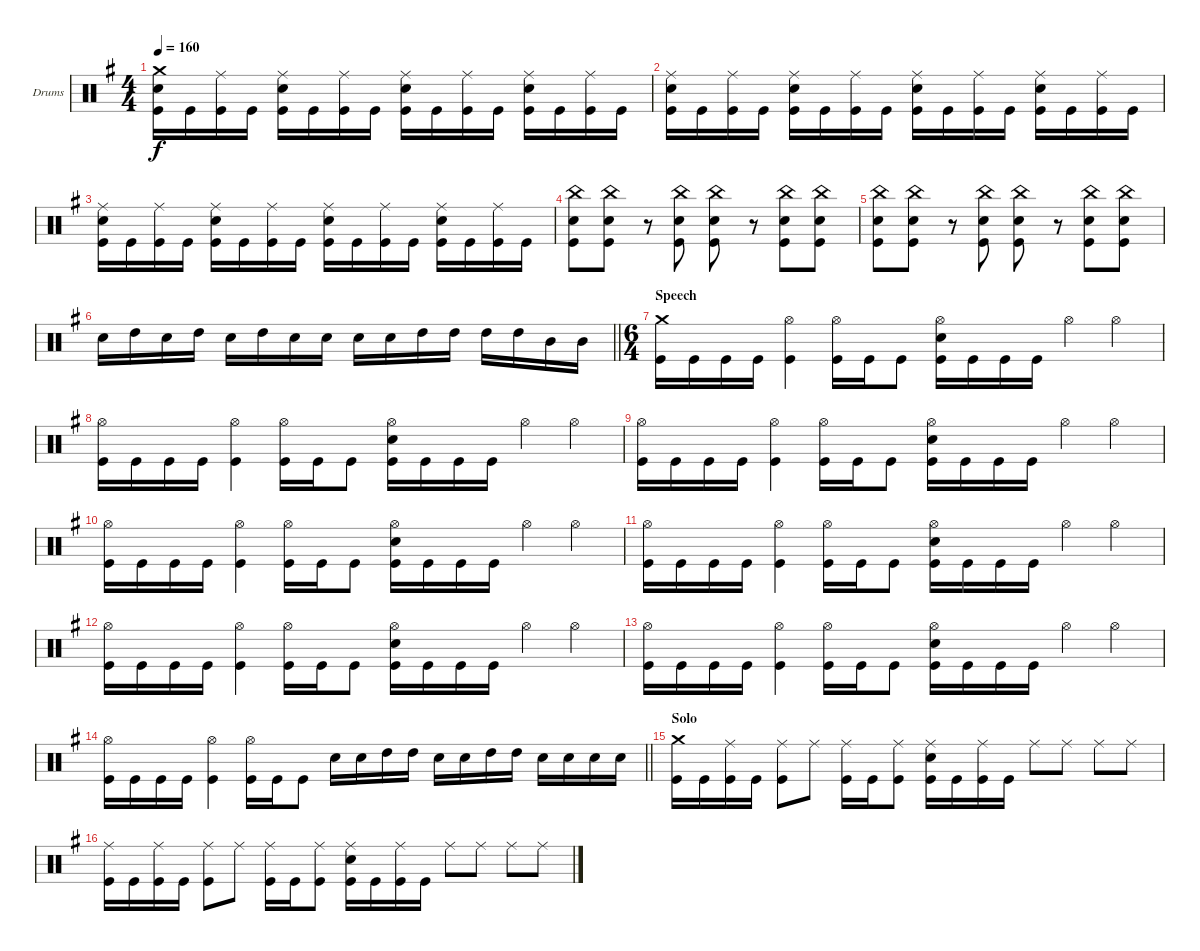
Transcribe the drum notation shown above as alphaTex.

\bracketExtendMode groupsimilarinstruments
\firstSystemTrackNameOrientation horizontal
\otherSystemsTrackNameOrientation horizontal
\track ("Drumkit" "Drums") {instrument percussion}
\staff {score}
\articulation defaults
\ts (4 4)
\tempo 160
\clef neutral
\scale
0.5
\ks g
("Crash medium (hit)" "Snare (hit) 2" "Kick (hit)").16{dy f} "Kick (hit)".16 ("Ride (middle)" "Kick (hit)").16 "Kick (hit)".16 ("Ride (middle)" "Snare (hit) 2" "Kick (hit)").16 "Kick (hit)".16 ("Ride (middle)" "Kick (hit)").16 "Kick (hit)".16 ("Ride (middle)" "Snare (hit) 2" "Kick (hit)").16 "Kick (hit)".16 ("Ride (middle)" "Kick (hit)").16 "Kick (hit)".16 ("Ride (middle)" "Snare (hit) 2" "Kick (hit)").16 "Kick (hit)".16 ("Ride (middle)" "Kick (hit)").16 "Kick (hit)".16 |
\scale
0.5 ("Ride (middle)" "Snare (hit) 2" "Kick (hit)").16 "Kick (hit)".16 ("Ride (middle)" "Kick (hit)").16 "Kick (hit)".16 ("Ride (middle)" "Snare (hit) 2" "Kick (hit)").16 "Kick (hit)".16 ("Ride (middle)" "Kick (hit)").16 "Kick (hit)".16 ("Ride (middle)" "Snare (hit) 2" "Kick (hit)").16 "Kick (hit)".16 ("Ride (middle)" "Kick (hit)").16 "Kick (hit)".16 ("Ride (middle)" "Snare (hit) 2" "Kick (hit)").16 "Kick (hit)".16 ("Ride (middle)" "Kick (hit)").16 "Kick (hit)".16 |
\scale
0.5 ("Ride (middle)" "Snare (hit) 2" "Kick (hit)").16 "Kick (hit)".16 ("Ride (middle)" "Kick (hit)").16 "Kick (hit)".16 ("Ride (middle)" "Snare (hit) 2" "Kick (hit)").16 "Kick (hit)".16 ("Ride (middle)" "Kick (hit)").16 "Kick (hit)".16 ("Ride (middle)" "Snare (hit) 2" "Kick (hit)").16 "Kick (hit)".16 ("Ride (middle)" "Kick (hit)").16 "Kick (hit)".16 ("Ride (middle)" "Snare (hit) 2" "Kick (hit)").16 "Kick (hit)".16 ("Ride (middle)" "Kick (hit)").16 "Kick (hit)".16 |
\scale
0.5 ("China (hit)" "Snare (hit) 2" "Kick (hit)").8 ("China (hit)" "Snare (hit) 2" "Kick (hit)").8 r.8 ("China (hit)" "Snare (hit) 2" "Kick (hit)").8 ("China (hit)" "Snare (hit) 2" "Kick (hit)").8 r.8 ("China (hit)" "Snare (hit) 2" "Kick (hit)").8 ("China (hit)" "Snare (hit) 2" "Kick (hit)").8 |
\scale
0.5 ("China (hit)" "Snare (hit) 2" "Kick (hit)").8 ("China (hit)" "Snare (hit) 2" "Kick (hit)").8 r.8 ("China (hit)" "Snare (hit) 2" "Kick (hit)").8 ("China (hit)" "Snare (hit) 2" "Kick (hit)").8 r.8 ("China (hit)" "Snare (hit) 2" "Kick (hit)").8 ("China (hit)" "Snare (hit) 2" "Kick (hit)").8 |
\scale
0.43281
\barLineRight lightlight "Snare (hit) 2".16 "High Tom (hit)".16 "Snare (hit) 2".16 "High Tom (hit)".16 "Snare (hit) 2".16 "High Tom (hit)".16 "Snare (hit) 2".16 "Snare (hit) 2".16 "Snare (hit) 2".16 "Snare (hit) 2".16 "High Tom (hit)".16 "High Tom (hit)".16 "High Tom (hit)".16 "High Tom (hit)".16 "Mid Tom (hit)".16 "Mid Tom (hit)".16
|
\ts (6 4)
\section ("" "Speech")
\scale
0.56719 ("Crash medium (hit)" "Kick (hit)").16 "Kick (hit)".16 "Kick (hit)".16 "Kick (hit)".16 ("Hi-Hat (open)" "Kick (hit)").4 ("Hi-Hat (open)" "Kick (hit)").16 "Kick (hit)".16 "Kick (hit)".8 ("Hi-Hat (open)" "Snare (hit) 2" "Kick (hit)").16 "Kick (hit)".16 "Kick (hit)".16 "Kick (hit)".16 "Hi-Hat (open)".4 "Hi-Hat (open)".4 |
\scale
0.5 ("Hi-Hat (open)" "Kick (hit)").16 "Kick (hit)".16 "Kick (hit)".16 "Kick (hit)".16 ("Hi-Hat (open)" "Kick (hit)").4 ("Hi-Hat (open)" "Kick (hit)").16 "Kick (hit)".16 "Kick (hit)".8 ("Hi-Hat (open)" "Snare (hit) 2" "Kick (hit)").16 "Kick (hit)".16 "Kick (hit)".16 "Kick (hit)".16 "Hi-Hat (open)".4 "Hi-Hat (open)".4 |
\scale
0.5 ("Hi-Hat (open)" "Kick (hit)").16 "Kick (hit)".16 "Kick (hit)".16 "Kick (hit)".16 ("Hi-Hat (open)" "Kick (hit)").4 ("Hi-Hat (open)" "Kick (hit)").16 "Kick (hit)".16 "Kick (hit)".8 ("Hi-Hat (open)" "Snare (hit) 2" "Kick (hit)").16 "Kick (hit)".16 "Kick (hit)".16 "Kick (hit)".16 "Hi-Hat (open)".4 "Hi-Hat (open)".4 |
\scale
0.5 ("Hi-Hat (open)" "Kick (hit)").16 "Kick (hit)".16 "Kick (hit)".16 "Kick (hit)".16 ("Hi-Hat (open)" "Kick (hit)").4 ("Hi-Hat (open)" "Kick (hit)").16 "Kick (hit)".16 "Kick (hit)".8 ("Hi-Hat (open)" "Snare (hit) 2" "Kick (hit)").16 "Kick (hit)".16 "Kick (hit)".16 "Kick (hit)".16 "Hi-Hat (open)".4 "Hi-Hat (open)".4 |
\scale
0.5 ("Hi-Hat (open)" "Kick (hit)").16 "Kick (hit)".16 "Kick (hit)".16 "Kick (hit)".16 ("Hi-Hat (open)" "Kick (hit)").4 ("Hi-Hat (open)" "Kick (hit)").16 "Kick (hit)".16 "Kick (hit)".8 ("Hi-Hat (open)" "Snare (hit) 2" "Kick (hit)").16 "Kick (hit)".16 "Kick (hit)".16 "Kick (hit)".16 "Hi-Hat (open)".4 "Hi-Hat (open)".4 |
\scale
0.5 ("Hi-Hat (open)" "Kick (hit)").16 "Kick (hit)".16 "Kick (hit)".16 "Kick (hit)".16 ("Hi-Hat (open)" "Kick (hit)").4 ("Hi-Hat (open)" "Kick (hit)").16 "Kick (hit)".16 "Kick (hit)".8 ("Hi-Hat (open)" "Snare (hit) 2" "Kick (hit)").16 "Kick (hit)".16 "Kick (hit)".16 "Kick (hit)".16 "Hi-Hat (open)".4 "Hi-Hat (open)".4 |
\scale
0.5 ("Hi-Hat (open)" "Kick (hit)").16 "Kick (hit)".16 "Kick (hit)".16 "Kick (hit)".16 ("Hi-Hat (open)" "Kick (hit)").4 ("Hi-Hat (open)" "Kick (hit)").16 "Kick (hit)".16 "Kick (hit)".8 ("Hi-Hat (open)" "Snare (hit) 2" "Kick (hit)").16 "Kick (hit)".16 "Kick (hit)".16 "Kick (hit)".16 "Hi-Hat (open)".4 "Hi-Hat (open)".4 |
\scale
0.520968
\barLineRight lightlight
("Hi-Hat (open)" "Kick (hit)").16 "Kick (hit)".16 "Kick (hit)".16 "Kick (hit)".16 ("Hi-Hat (open)" "Kick (hit)").4 ("Hi-Hat (open)" "Kick (hit)").16 "Kick (hit)".16 "Kick (hit)".8 "Snare (hit) 2".16 "Snare (hit) 2".16 "High Tom (hit)".16 "High Tom (hit)".16 "Snare (hit) 2".16 "Snare (hit) 2".16 "High Tom (hit)".16 "High Tom (hit)".16 "Snare (hit) 2".16 "Snare (hit) 2".16 "Snare (hit) 2".16 "Snare (hit) 2".16 |
\section ("" "Solo")
\scale
0.479032 ("Crash medium (hit)" "Kick (hit)").16 "Kick (hit)".16 ("Ride (middle)" "Kick (hit)").16 "Kick (hit)".16 ("Ride (middle)" "Kick (hit)").8 "Ride (middle)".8 ("Ride (middle)" "Kick (hit)").16 "Kick (hit)".16 ("Ride (middle)" "Kick (hit)").8 ("Ride (middle)" "Snare (hit) 2" "Kick (hit)").16 "Kick (hit)".16 ("Ride (middle)" "Kick (hit)").16 "Kick (hit)".16 "Ride (middle)".8 "Ride (middle)".8 "Ride (middle)".8 "Ride (middle)".8 |
\scale
0.5 ("Ride (middle)" "Kick (hit)").16 "Kick (hit)".16 ("Ride (middle)" "Kick (hit)").16 "Kick (hit)".16 ("Ride (middle)" "Kick (hit)").8 "Ride (middle)".8 ("Ride (middle)" "Kick (hit)").16 "Kick (hit)".16 ("Ride (middle)" "Kick (hit)").8 ("Ride (middle)" "Snare (hit) 2" "Kick (hit)").16 "Kick (hit)".16 ("Ride (middle)" "Kick (hit)").16 "Kick (hit)".16 "Ride (middle)".8 "Ride (middle)".8 "Ride (middle)".8 "Ride (middle)".8
